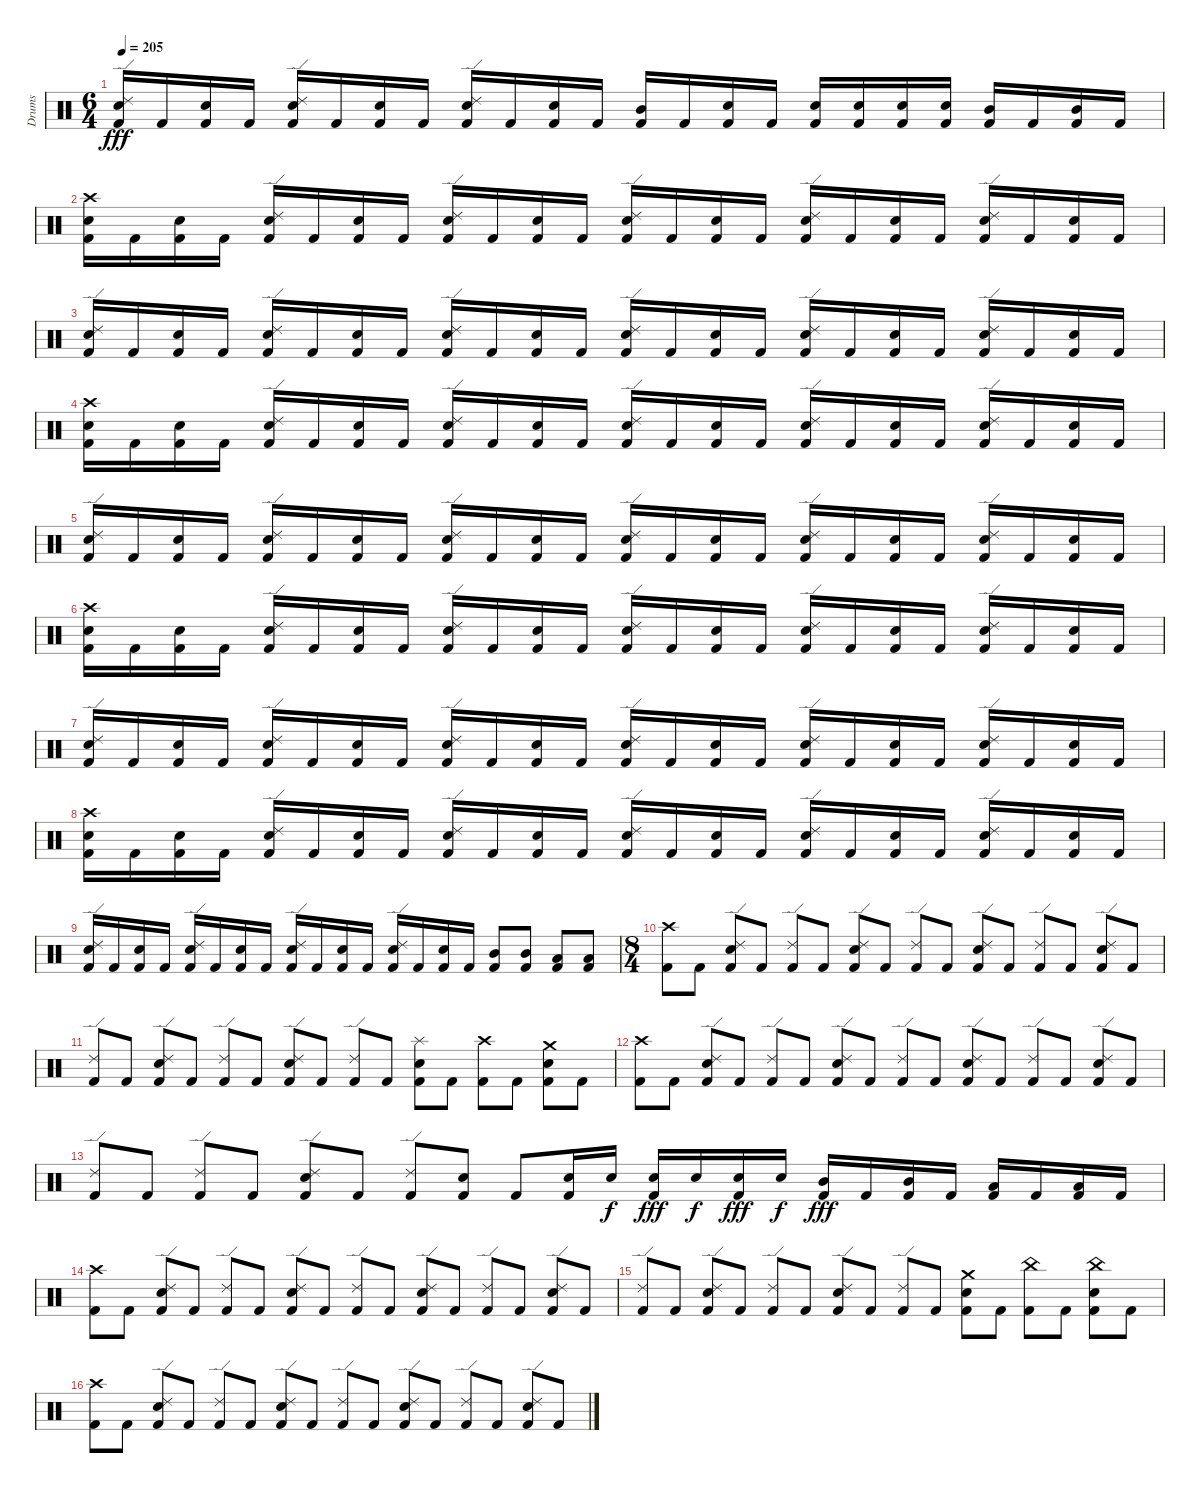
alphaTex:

\track ("Drums" "Drums") {instrument percussion}
\staff {score}
\articulation defaults
\ts (6 4)
\tempo 205
\clef neutral
\ks c
("Ride (edge) 2" "Snare (hit) 2" "Kick (hit) 2").16{dy fff} "Kick (hit) 2".16 ("Snare (hit) 2" "Kick (hit) 2").16 "Kick (hit) 2".16 ("Ride (edge) 2" "Snare (hit) 2" "Kick (hit) 2").16 "Kick (hit) 2".16 ("Snare (hit) 2" "Kick (hit) 2").16 "Kick (hit) 2".16 ("Ride (edge) 2" "Snare (hit) 2" "Kick (hit) 2").16 "Kick (hit) 2".16 ("Snare (hit) 2" "Kick (hit) 2").16 "Kick (hit) 2".16 ("Mid Tom (hit)" "Kick (hit) 2").16 "Kick (hit) 2".16 ("Snare (hit) 2" "Kick (hit) 2").16 "Kick (hit) 2".16 ("Snare (hit) 2" "Kick (hit) 2").16 ("Snare (hit) 2" "Kick (hit) 2").16 ("Snare (hit) 2" "Kick (hit) 2").16 ("Snare (hit) 2" "Kick (hit) 2").16 ("Mid Tom (hit)" "Kick (hit) 2").16 "Kick (hit) 2".16 ("Mid Tom (hit)" "Kick (hit) 2").16 "Kick (hit) 2".16 |
("Crash high (hit)" "Snare (hit) 2" "Kick (hit) 2").16 "Kick (hit) 2".16 ("Snare (hit) 2" "Kick (hit) 2").16 "Kick (hit) 2".16 ("Ride (edge) 2" "Snare (hit) 2" "Kick (hit) 2").16 "Kick (hit) 2".16 ("Snare (hit) 2" "Kick (hit) 2").16 "Kick (hit) 2".16 ("Ride (edge) 2" "Snare (hit) 2" "Kick (hit) 2").16 "Kick (hit) 2".16 ("Snare (hit) 2" "Kick (hit) 2").16 "Kick (hit) 2".16 ("Ride (edge) 2" "Snare (hit) 2" "Kick (hit) 2").16 "Kick (hit) 2".16 ("Snare (hit) 2" "Kick (hit) 2").16 "Kick (hit) 2".16 ("Ride (edge) 2" "Snare (hit) 2" "Kick (hit) 2").16 "Kick (hit) 2".16 ("Snare (hit) 2" "Kick (hit) 2").16 "Kick (hit) 2".16 ("Ride (edge) 2" "Snare (hit) 2" "Kick (hit) 2").16 "Kick (hit) 2".16 ("Snare (hit) 2" "Kick (hit) 2").16 "Kick (hit) 2".16 |
("Ride (edge) 2" "Snare (hit) 2" "Kick (hit) 2").16 "Kick (hit) 2".16 ("Snare (hit) 2" "Kick (hit) 2").16 "Kick (hit) 2".16 ("Ride (edge) 2" "Snare (hit) 2" "Kick (hit) 2").16 "Kick (hit) 2".16 ("Snare (hit) 2" "Kick (hit) 2").16 "Kick (hit) 2".16 ("Ride (edge) 2" "Snare (hit) 2" "Kick (hit) 2").16 "Kick (hit) 2".16 ("Snare (hit) 2" "Kick (hit) 2").16 "Kick (hit) 2".16 ("Ride (edge) 2" "Snare (hit) 2" "Kick (hit) 2").16 "Kick (hit) 2".16 ("Snare (hit) 2" "Kick (hit) 2").16 "Kick (hit) 2".16 ("Ride (edge) 2" "Snare (hit) 2" "Kick (hit) 2").16 "Kick (hit) 2".16 ("Snare (hit) 2" "Kick (hit) 2").16 "Kick (hit) 2".16 ("Ride (edge) 2" "Snare (hit) 2" "Kick (hit) 2").16 "Kick (hit) 2".16 ("Snare (hit) 2" "Kick (hit) 2").16 "Kick (hit) 2".16 |
("Crash high (hit)" "Snare (hit) 2" "Kick (hit) 2").16 "Kick (hit) 2".16 ("Snare (hit) 2" "Kick (hit) 2").16 "Kick (hit) 2".16 ("Ride (edge) 2" "Snare (hit) 2" "Kick (hit) 2").16 "Kick (hit) 2".16 ("Snare (hit) 2" "Kick (hit) 2").16 "Kick (hit) 2".16 ("Ride (edge) 2" "Snare (hit) 2" "Kick (hit) 2").16 "Kick (hit) 2".16 ("Snare (hit) 2" "Kick (hit) 2").16 "Kick (hit) 2".16 ("Ride (edge) 2" "Snare (hit) 2" "Kick (hit) 2").16 "Kick (hit) 2".16 ("Snare (hit) 2" "Kick (hit) 2").16 "Kick (hit) 2".16 ("Ride (edge) 2" "Snare (hit) 2" "Kick (hit) 2").16 "Kick (hit) 2".16 ("Snare (hit) 2" "Kick (hit) 2").16 "Kick (hit) 2".16 ("Ride (edge) 2" "Snare (hit) 2" "Kick (hit) 2").16 "Kick (hit) 2".16 ("Snare (hit) 2" "Kick (hit) 2").16 "Kick (hit) 2".16 |
("Ride (edge) 2" "Snare (hit) 2" "Kick (hit) 2").16 "Kick (hit) 2".16 ("Snare (hit) 2" "Kick (hit) 2").16 "Kick (hit) 2".16 ("Ride (edge) 2" "Snare (hit) 2" "Kick (hit) 2").16 "Kick (hit) 2".16 ("Snare (hit) 2" "Kick (hit) 2").16 "Kick (hit) 2".16 ("Ride (edge) 2" "Snare (hit) 2" "Kick (hit) 2").16 "Kick (hit) 2".16 ("Snare (hit) 2" "Kick (hit) 2").16 "Kick (hit) 2".16 ("Ride (edge) 2" "Snare (hit) 2" "Kick (hit) 2").16 "Kick (hit) 2".16 ("Snare (hit) 2" "Kick (hit) 2").16 "Kick (hit) 2".16 ("Ride (edge) 2" "Snare (hit) 2" "Kick (hit) 2").16 "Kick (hit) 2".16 ("Snare (hit) 2" "Kick (hit) 2").16 "Kick (hit) 2".16 ("Ride (edge) 2" "Snare (hit) 2" "Kick (hit) 2").16 "Kick (hit) 2".16 ("Snare (hit) 2" "Kick (hit) 2").16 "Kick (hit) 2".16 |
("Crash high (hit)" "Snare (hit) 2" "Kick (hit) 2").16 "Kick (hit) 2".16 ("Snare (hit) 2" "Kick (hit) 2").16 "Kick (hit) 2".16 ("Ride (edge) 2" "Snare (hit) 2" "Kick (hit) 2").16 "Kick (hit) 2".16 ("Snare (hit) 2" "Kick (hit) 2").16 "Kick (hit) 2".16 ("Ride (edge) 2" "Snare (hit) 2" "Kick (hit) 2").16 "Kick (hit) 2".16 ("Snare (hit) 2" "Kick (hit) 2").16 "Kick (hit) 2".16 ("Ride (edge) 2" "Snare (hit) 2" "Kick (hit) 2").16 "Kick (hit) 2".16 ("Snare (hit) 2" "Kick (hit) 2").16 "Kick (hit) 2".16 ("Ride (edge) 2" "Snare (hit) 2" "Kick (hit) 2").16 "Kick (hit) 2".16 ("Snare (hit) 2" "Kick (hit) 2").16 "Kick (hit) 2".16 ("Ride (edge) 2" "Snare (hit) 2" "Kick (hit) 2").16 "Kick (hit) 2".16 ("Snare (hit) 2" "Kick (hit) 2").16 "Kick (hit) 2".16 |
("Ride (edge) 2" "Snare (hit) 2" "Kick (hit) 2").16 "Kick (hit) 2".16 ("Snare (hit) 2" "Kick (hit) 2").16 "Kick (hit) 2".16 ("Ride (edge) 2" "Snare (hit) 2" "Kick (hit) 2").16 "Kick (hit) 2".16 ("Snare (hit) 2" "Kick (hit) 2").16 "Kick (hit) 2".16 ("Ride (edge) 2" "Snare (hit) 2" "Kick (hit) 2").16 "Kick (hit) 2".16 ("Snare (hit) 2" "Kick (hit) 2").16 "Kick (hit) 2".16 ("Ride (edge) 2" "Snare (hit) 2" "Kick (hit) 2").16 "Kick (hit) 2".16 ("Snare (hit) 2" "Kick (hit) 2").16 "Kick (hit) 2".16 ("Ride (edge) 2" "Snare (hit) 2" "Kick (hit) 2").16 "Kick (hit) 2".16 ("Snare (hit) 2" "Kick (hit) 2").16 "Kick (hit) 2".16 ("Ride (edge) 2" "Snare (hit) 2" "Kick (hit) 2").16 "Kick (hit) 2".16 ("Snare (hit) 2" "Kick (hit) 2").16 "Kick (hit) 2".16 |
("Crash high (hit)" "Snare (hit) 2" "Kick (hit) 2").16 "Kick (hit) 2".16 ("Snare (hit) 2" "Kick (hit) 2").16 "Kick (hit) 2".16 ("Ride (edge) 2" "Snare (hit) 2" "Kick (hit) 2").16 "Kick (hit) 2".16 ("Snare (hit) 2" "Kick (hit) 2").16 "Kick (hit) 2".16 ("Ride (edge) 2" "Snare (hit) 2" "Kick (hit) 2").16 "Kick (hit) 2".16 ("Snare (hit) 2" "Kick (hit) 2").16 "Kick (hit) 2".16 ("Ride (edge) 2" "Snare (hit) 2" "Kick (hit) 2").16 "Kick (hit) 2".16 ("Snare (hit) 2" "Kick (hit) 2").16 "Kick (hit) 2".16 ("Ride (edge) 2" "Snare (hit) 2" "Kick (hit) 2").16 "Kick (hit) 2".16 ("Snare (hit) 2" "Kick (hit) 2").16 "Kick (hit) 2".16 ("Ride (edge) 2" "Snare (hit) 2" "Kick (hit) 2").16 "Kick (hit) 2".16 ("Snare (hit) 2" "Kick (hit) 2").16 "Kick (hit) 2".16 |
("Ride (edge) 2" "Snare (hit) 2" "Kick (hit) 2").16 "Kick (hit) 2".16 ("Snare (hit) 2" "Kick (hit) 2").16 "Kick (hit) 2".16 ("Ride (edge) 2" "Snare (hit) 2" "Kick (hit) 2").16 "Kick (hit) 2".16 ("Snare (hit) 2" "Kick (hit) 2").16 "Kick (hit) 2".16 ("Ride (edge) 2" "Snare (hit) 2" "Kick (hit) 2").16 "Kick (hit) 2".16 ("Snare (hit) 2" "Kick (hit) 2").16 "Kick (hit) 2".16 ("Ride (edge) 2" "Snare (hit) 2" "Kick (hit) 2").16 "Kick (hit) 2".16 ("Snare (hit) 2" "Kick (hit) 2").16 "Kick (hit) 2".16 ("Mid Tom (hit)" "Kick (hit) 2").8 ("Mid Tom (hit)" "Kick (hit) 2").8 ("Low Tom (hit)" "Kick (hit) 2").8 ("Low Tom (hit)" "Kick (hit) 2").8 |
\ts (8 4)
("Crash high (hit)" "Kick (hit) 2").8 "Kick (hit) 2".8 ("Ride (edge) 2" "Snare (hit) 2" "Kick (hit) 2").8 "Kick (hit) 2".8 ("Ride (edge) 2" "Kick (hit) 2").8 "Kick (hit) 2".8 ("Ride (edge) 2" "Snare (hit) 2" "Kick (hit) 2").8 "Kick (hit) 2".8 ("Ride (edge) 2" "Kick (hit) 2").8 "Kick (hit) 2".8 ("Ride (edge) 2" "Snare (hit) 2" "Kick (hit) 2").8 "Kick (hit) 2".8 ("Ride (edge) 2" "Kick (hit) 2").8 "Kick (hit) 2".8 ("Ride (edge) 2" "Snare (hit) 2" "Kick (hit) 2").8 "Kick (hit) 2".8 |
("Ride (edge) 2" "Kick (hit) 2").8 "Kick (hit) 2".8 ("Ride (edge) 2" "Snare (hit) 2" "Kick (hit) 2").8 "Kick (hit) 2".8 ("Ride (edge) 2" "Kick (hit) 2").8 "Kick (hit) 2".8 ("Ride (edge) 2" "Snare (hit) 2" "Kick (hit) 2").8 "Kick (hit) 2".8 ("Ride (edge) 2" "Kick (hit) 2").8 "Kick (hit) 2".8 ("Splash (hit)" "Snare (hit) 2" "Kick (hit) 2").8 "Kick (hit) 2".8 ("Crash high (hit)" "Kick (hit) 2").8 "Kick (hit) 2".8 ("Crash medium (hit)" "Snare (hit) 2" "Kick (hit) 2").8 "Kick (hit) 2".8 |
("Crash high (hit)" "Kick (hit) 2").8 "Kick (hit) 2".8 ("Ride (edge) 2" "Snare (hit) 2" "Kick (hit) 2").8 "Kick (hit) 2".8 ("Ride (edge) 2" "Kick (hit) 2").8 "Kick (hit) 2".8 ("Ride (edge) 2" "Snare (hit) 2" "Kick (hit) 2").8 "Kick (hit) 2".8 ("Ride (edge) 2" "Kick (hit) 2").8 "Kick (hit) 2".8 ("Ride (edge) 2" "Snare (hit) 2" "Kick (hit) 2").8 "Kick (hit) 2".8 ("Ride (edge) 2" "Kick (hit) 2").8 "Kick (hit) 2".8 ("Ride (edge) 2" "Snare (hit) 2" "Kick (hit) 2").8 "Kick (hit) 2".8 |
("Ride (edge) 2" "Kick (hit) 2").8 "Kick (hit) 2".8 ("Ride (edge) 2" "Kick (hit) 2").8 "Kick (hit) 2".8 ("Ride (edge) 2" "Snare (hit) 2" "Kick (hit) 2").8 "Kick (hit) 2".8 ("Ride (edge) 2" "Kick (hit) 2").8 ("Snare (hit) 2" "Kick (hit) 2").8 "Kick (hit) 2".8 ("Snare (hit) 2" "Kick (hit) 2").16 "Snare (hit) 2".16{dy f} ("Snare (hit) 2" "Kick (hit) 2").16{dy fff} "Snare (hit) 2".16{dy f} ("Snare (hit) 2" "Kick (hit) 2").16{dy fff} "Snare (hit) 2".16{dy f} ("Mid Tom (hit)" "Kick (hit) 2").16{dy fff} "Kick (hit) 2".16 ("Mid Tom (hit)" "Kick (hit) 2").16 "Kick (hit) 2".16 ("Low Tom (hit)" "Kick (hit) 2").16 "Kick (hit) 2".16 ("Low Tom (hit)" "Kick (hit) 2").16 "Kick (hit) 2".16 |
("Crash high (hit)" "Kick (hit) 2").8 "Kick (hit) 2".8 ("Ride (edge) 2" "Snare (hit) 2" "Kick (hit) 2").8 "Kick (hit) 2".8 ("Ride (edge) 2" "Kick (hit) 2").8 "Kick (hit) 2".8 ("Ride (edge) 2" "Snare (hit) 2" "Kick (hit) 2").8 "Kick (hit) 2".8 ("Ride (edge) 2" "Kick (hit) 2").8 "Kick (hit) 2".8 ("Ride (edge) 2" "Snare (hit) 2" "Kick (hit) 2").8 "Kick (hit) 2".8 ("Ride (edge) 2" "Kick (hit) 2").8 "Kick (hit) 2".8 ("Ride (edge) 2" "Snare (hit) 2" "Kick (hit) 2").8 "Kick (hit) 2".8 |
("Ride (edge) 2" "Kick (hit) 2").8 "Kick (hit) 2".8 ("Ride (edge) 2" "Snare (hit) 2" "Kick (hit) 2").8 "Kick (hit) 2".8 ("Ride (edge) 2" "Kick (hit) 2").8 "Kick (hit) 2".8 ("Ride (edge) 2" "Snare (hit) 2" "Kick (hit) 2").8 "Kick (hit) 2".8 ("Ride (edge) 2" "Kick (hit) 2").8 "Kick (hit) 2".8 ("Crash medium (hit)" "Snare (hit) 2" "Kick (hit) 2").8 "Kick (hit) 2".8 ("China (hit)" "Kick (hit) 2").8 "Kick (hit) 2".8 ("China (hit)" "Snare (hit) 2" "Kick (hit) 2").8 "Kick (hit) 2".8 |
("Crash high (hit)" "Kick (hit) 2").8 "Kick (hit) 2".8 ("Ride (edge) 2" "Snare (hit) 2" "Kick (hit) 2").8 "Kick (hit) 2".8 ("Ride (edge) 2" "Kick (hit) 2").8 "Kick (hit) 2".8 ("Ride (edge) 2" "Snare (hit) 2" "Kick (hit) 2").8 "Kick (hit) 2".8 ("Ride (edge) 2" "Kick (hit) 2").8 "Kick (hit) 2".8 ("Ride (edge) 2" "Snare (hit) 2" "Kick (hit) 2").8 "Kick (hit) 2".8 ("Ride (edge) 2" "Kick (hit) 2").8 "Kick (hit) 2".8 ("Ride (edge) 2" "Snare (hit) 2" "Kick (hit) 2").8 "Kick (hit) 2".8
